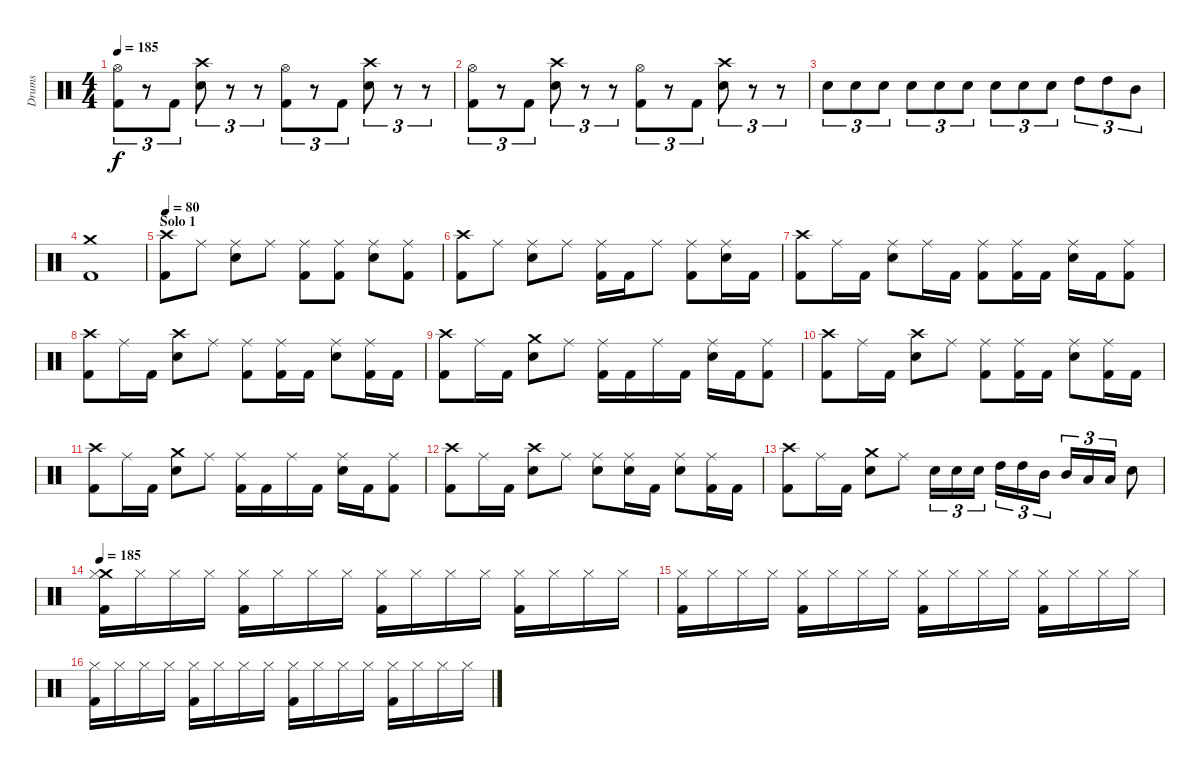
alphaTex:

\track ("Drums" "Drums") {instrument percussion}
\staff {score}
\articulation defaults
\ts (4 4)
\tempo 185
\clef neutral
\ks c
("Hi-Hat (open)" "Kick (hit) 2").8{tu (3 2) dy f} r.8{tu (3 2)} "Kick (hit) 2".8{tu (3 2)} ("Crash high (hit)" "Electric Snare (hit)").8{tu (3 2)} r.8{tu (3 2)} r.8{tu (3 2)} ("Hi-Hat (open)" "Kick (hit) 2").8{tu (3 2)} r.8{tu (3 2)} "Kick (hit) 2".8{tu (3 2)} ("Crash high (hit)" "Electric Snare (hit)").8{tu (3 2)} r.8{tu (3 2)} r.8{tu (3 2)} |
("Hi-Hat (open)" "Kick (hit) 2").8{tu (3 2)} r.8{tu (3 2)} "Kick (hit) 2".8{tu (3 2)} ("Crash high (hit)" "Electric Snare (hit)").8{tu (3 2)} r.8{tu (3 2)} r.8{tu (3 2)} ("Hi-Hat (open)" "Kick (hit) 2").8{tu (3 2)} r.8{tu (3 2)} "Kick (hit) 2".8{tu (3 2)} ("Crash high (hit)" "Electric Snare (hit)").8{tu (3 2)} r.8{tu (3 2)} r.8{tu (3 2)} |
"Electric Snare (hit)".8{tu (3 2)} "Electric Snare (hit)".8{tu (3 2)} "Electric Snare (hit)".8{tu (3 2)} "Electric Snare (hit)".8{tu (3 2)} "Electric Snare (hit)".8{tu (3 2)} "Electric Snare (hit)".8{tu (3 2)} "Electric Snare (hit)".8{tu (3 2)} "Electric Snare (hit)".8{tu (3 2)} "Electric Snare (hit)".8{tu (3 2)} "High Tom (hit)".8{tu (3 2)} "High Tom (hit)".8{tu (3 2)} "Mid Tom (hit)".8{tu (3 2)} |
("Crash medium (hit)" "Kick (hit) 2").1 |
\section ("" "Solo 1")
\tempo 80
("Crash high (hit)" "Kick (hit) 2").8 "Ride (middle)".8 ("Ride (middle)" "Electric Snare (hit)").8 "Ride (middle)".8 ("Ride (middle)" "Kick (hit) 2").8 ("Ride (middle)" "Kick (hit) 2").8 ("Ride (middle)" "Electric Snare (hit)").8 ("Ride (middle)" "Kick (hit) 2").8 |
("Crash high (hit)" "Kick (hit) 2").8 "Ride (middle)".8 ("Ride (middle)" "Electric Snare (hit)").8 "Ride (middle)".8 ("Ride (middle)" "Kick (hit) 2").16 "Kick (hit) 2".16 "Ride (middle)".8 ("Ride (middle)" "Kick (hit) 2").8 ("Ride (middle)" "Electric Snare (hit)").16 "Kick (hit) 2".16 |
("Crash high (hit)" "Kick (hit) 2").8 "Ride (middle)".16 "Kick (hit) 2".16 ("Ride (middle)" "Electric Snare (hit)").8 "Ride (middle)".16 "Kick (hit) 2".16 ("Ride (middle)" "Kick (hit) 2").8 ("Ride (middle)" "Kick (hit) 2").16 "Kick (hit) 2".16 ("Ride (middle)" "Electric Snare (hit)").16 "Kick (hit) 2".16 ("Ride (middle)" "Kick (hit) 2").8 |
("Crash high (hit)" "Kick (hit) 2").8 "Ride (middle)".16 "Kick (hit) 2".16 ("Crash high (hit)" "Electric Snare (hit)").8 "Ride (middle)".8 ("Ride (middle)" "Kick (hit) 2").8 ("Ride (middle)" "Kick (hit) 2").16 "Kick (hit) 2".16 ("Ride (middle)" "Electric Snare (hit)").8 ("Ride (middle)" "Kick (hit) 2").16 "Kick (hit) 2".16 |
("Crash high (hit)" "Kick (hit) 2").8 "Ride (middle)".16 "Kick (hit) 2".16 ("Crash medium (hit)" "Electric Snare (hit)").8 "Ride (middle)".8 ("Ride (middle)" "Kick (hit) 2").16 "Kick (hit) 2".16 "Ride (middle)".16 "Kick (hit) 2".16 ("Ride (middle)" "Electric Snare (hit)").16 "Kick (hit) 2".16 ("Ride (middle)" "Kick (hit) 2").8 |
("Crash high (hit)" "Kick (hit) 2").8 "Ride (middle)".16 "Kick (hit) 2".16 ("Crash high (hit)" "Electric Snare (hit)").8 "Ride (middle)".8 ("Ride (middle)" "Kick (hit) 2").8 ("Ride (middle)" "Kick (hit) 2").16 "Kick (hit) 2".16 ("Ride (middle)" "Electric Snare (hit)").8 ("Ride (middle)" "Kick (hit) 2").16 "Kick (hit) 2".16 |
("Crash high (hit)" "Kick (hit) 2").8 "Ride (middle)".16 "Kick (hit) 2".16 ("Crash medium (hit)" "Electric Snare (hit)").8 "Ride (middle)".8 ("Ride (middle)" "Kick (hit) 2").16 "Kick (hit) 2".16 "Ride (middle)".16 "Kick (hit) 2".16 ("Ride (middle)" "Electric Snare (hit)").16 "Kick (hit) 2".16 ("Ride (middle)" "Kick (hit) 2").8 |
("Crash high (hit)" "Kick (hit) 2").8 "Ride (middle)".16 "Kick (hit) 2".16 ("Crash high (hit)" "Electric Snare (hit)").8 "Ride (middle)".8 ("Ride (middle)" "Electric Snare (hit)").8 ("Ride (middle)" "Electric Snare (hit)").16 "Kick (hit) 2".16 ("Ride (middle)" "Electric Snare (hit)").8 ("Ride (middle)" "Kick (hit) 2").16 "Kick (hit) 2".16 |
("Crash high (hit)" "Kick (hit) 2").8 "Ride (middle)".16 "Kick (hit) 2".16 ("Crash medium (hit)" "Electric Snare (hit)").8 "Ride (middle)".8 "Electric Snare (hit)".16{tu (3 2)} "Electric Snare (hit)".16{tu (3 2)} "Electric Snare (hit)".16{tu (3 2)} "High Tom (hit)".16{tu (3 2)} "High Tom (hit)".16{tu (3 2)} "Mid Tom (hit)".16{tu (3 2)} "Mid Tom (hit)".16{tu (3 2)} "Low Tom (hit)".16{tu (3 2)} "Low Tom (hit)".16{tu (3 2)} "Electric Snare (hit)".8 |
\tempo 185
("Crash medium (hit)" "Hi-Hat (closed)" "Kick (hit) 2").16 "Hi-Hat (closed)".16 "Hi-Hat (closed)".16 "Hi-Hat (closed)".16 ("Hi-Hat (closed)" "Kick (hit) 2").16 "Hi-Hat (closed)".16 "Hi-Hat (closed)".16 "Hi-Hat (closed)".16 ("Hi-Hat (closed)" "Kick (hit) 2").16 "Hi-Hat (closed)".16 "Hi-Hat (closed)".16 "Hi-Hat (closed)".16 ("Hi-Hat (closed)" "Kick (hit) 2").16 "Hi-Hat (closed)".16 "Hi-Hat (closed)".16 "Hi-Hat (closed)".16 |
("Hi-Hat (closed)" "Kick (hit) 2").16 "Hi-Hat (closed)".16 "Hi-Hat (closed)".16 "Hi-Hat (closed)".16 ("Hi-Hat (closed)" "Kick (hit) 2").16 "Hi-Hat (closed)".16 "Hi-Hat (closed)".16 "Hi-Hat (closed)".16 ("Hi-Hat (closed)" "Kick (hit) 2").16 "Hi-Hat (closed)".16 "Hi-Hat (closed)".16 "Hi-Hat (closed)".16 ("Hi-Hat (closed)" "Kick (hit) 2").16 "Hi-Hat (closed)".16 "Hi-Hat (closed)".16 "Hi-Hat (closed)".16 |
("Hi-Hat (closed)" "Kick (hit) 2").16 "Hi-Hat (closed)".16 "Hi-Hat (closed)".16 "Hi-Hat (closed)".16 ("Hi-Hat (closed)" "Kick (hit) 2").16 "Hi-Hat (closed)".16 "Hi-Hat (closed)".16 "Hi-Hat (closed)".16 ("Hi-Hat (closed)" "Kick (hit) 2").16 "Hi-Hat (closed)".16 "Hi-Hat (closed)".16 "Hi-Hat (closed)".16 ("Hi-Hat (closed)" "Kick (hit) 2").16 "Hi-Hat (closed)".16 "Hi-Hat (closed)".16 "Hi-Hat (closed)".16
